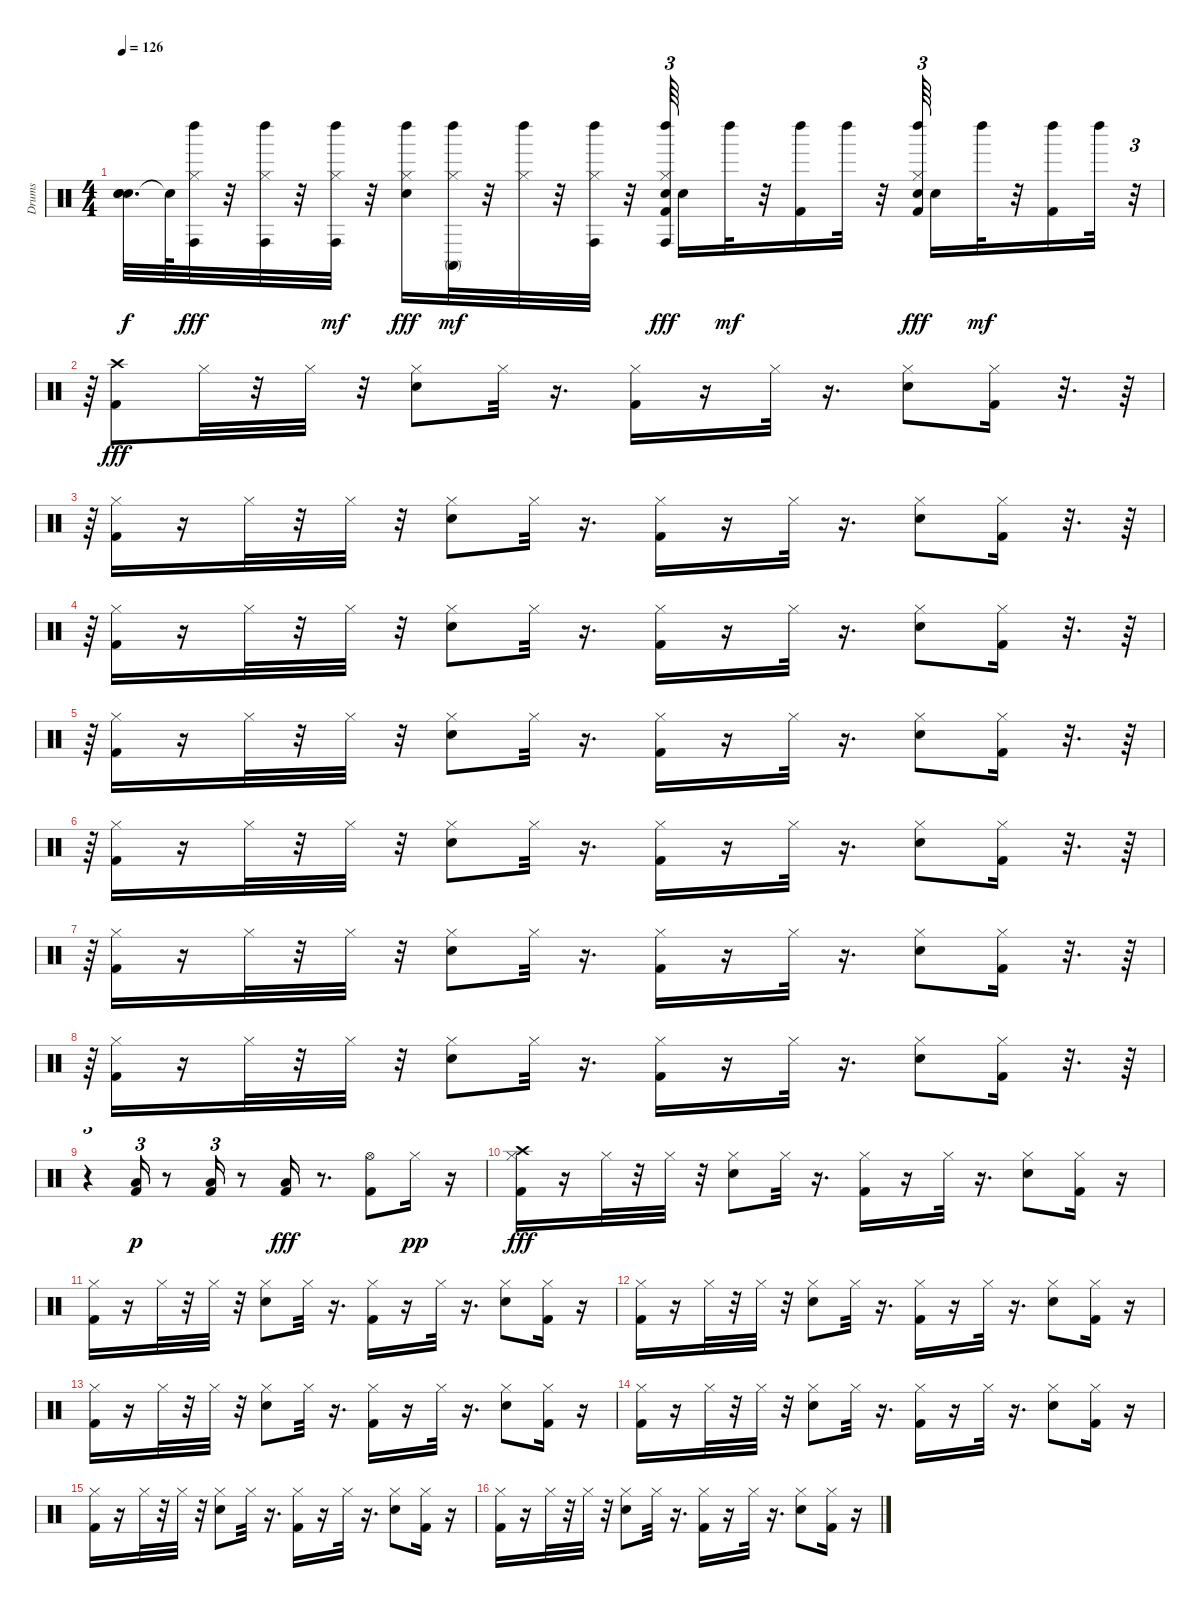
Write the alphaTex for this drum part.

\track ("Drums" "Drums") {instrument percussion}
\staff {score}
\articulation defaults
\ts (4 4)
\tempo 126
\clef neutral
\ks c
("Snare (hit)"{t} "Snare (hit)"{t} "Snare (hit)"{t}).32{d dy f} "Snare (hit)"{t}.64 ("Left Maraca (hit)" "Conga high (hit)" "Hi-Hat (closed)").32{dy fff} r.32 ("Conga high (hit)" "Left Maraca (hit)" "Hi-Hat (closed)").32 r.32 ("Hi-Hat (closed)" "Conga high (hit)" "Left Maraca (hit)").32{dy mf} r.32 ("Hi-Hat (closed)" "Left Maraca (hit)" "Snare (hit) 2").16{dy fff} ("Hi-Hat (closed)" "Conga high (mute)" "Left Maraca (hit)").32{dy mf} r.32 ("Hi-Hat (closed)" "Left Maraca (hit)").32 r.32 ("Conga high (hit)" "Hi-Hat (closed)" "Left Maraca (hit)").32 r.32 ("Kick (hit) 2" "Hi-Hat (closed)" "Left Maraca (hit)" "Snare (hit) 2" "Conga high (hit)").64{tu (3 2) dy fff} "Snare (hit) 2".16 "Left Maraca (hit)".32{dy mf} r.32 ("Left Maraca (hit)" "Kick (hit) 2").16 "Left Maraca (hit)".32 r.32 ("Left Maraca (hit)" "Snare (hit) 2" "Kick (hit) 2" "Hi-Hat (closed)").64{tu (3 2) dy fff} "Snare (hit) 2".16 "Left Maraca (hit)".32{dy mf} r.32 ("Left Maraca (hit)" "Kick (hit) 2").16 "Left Maraca (hit)".32 r.32{tu (3 2)} |
r.64{tu (3 2)} ("Crash high (hit)" "Kick (hit) 2").8{dy fff} "Hi-Hat (closed)".32 r.32 "Hi-Hat (closed)".32 r.32 ("Hi-Hat (closed)" "Snare (hit) 2").8 "Hi-Hat (closed)".32 r.16{d} ("Hi-Hat (closed)" "Kick (hit) 2").16 r.16 "Hi-Hat (closed)".32 r.16{d} ("Snare (hit) 2" "Hi-Hat (closed)").8 ("Hi-Hat (closed)" "Kick (hit) 2").16 r.32{d} r.64 |
r.64{tu (3 2)} ("Hi-Hat (closed)" "Kick (hit) 2").16 r.16 "Hi-Hat (closed)".32 r.32 "Hi-Hat (closed)".32 r.32 ("Hi-Hat (closed)" "Snare (hit) 2").8 "Hi-Hat (closed)".32 r.16{d} ("Hi-Hat (closed)" "Kick (hit) 2").16 r.16 "Hi-Hat (closed)".32 r.16{d} ("Snare (hit) 2" "Hi-Hat (closed)").8 ("Kick (hit) 2" "Hi-Hat (closed)").16 r.32{d} r.64 |
r.64{tu (3 2)} ("Hi-Hat (closed)" "Kick (hit) 2").16 r.16 "Hi-Hat (closed)".32 r.32 "Hi-Hat (closed)".32 r.32 ("Hi-Hat (closed)" "Snare (hit) 2").8 "Hi-Hat (closed)".32 r.16{d} ("Hi-Hat (closed)" "Kick (hit) 2").16 r.16 "Hi-Hat (closed)".32 r.16{d} ("Snare (hit) 2" "Hi-Hat (closed)").8 ("Hi-Hat (closed)" "Kick (hit) 2").16 r.32{d} r.64 |
r.64{tu (3 2)} ("Hi-Hat (closed)" "Kick (hit) 2").16 r.16 "Hi-Hat (closed)".32 r.32 "Hi-Hat (closed)".32 r.32 ("Snare (hit) 2" "Hi-Hat (closed)").8 "Hi-Hat (closed)".32 r.16{d} ("Hi-Hat (closed)" "Kick (hit) 2").16 r.16 "Hi-Hat (closed)".32 r.16{d} ("Snare (hit) 2" "Hi-Hat (closed)").8 ("Kick (hit) 2" "Hi-Hat (closed)").16 r.32{d} r.64 |
r.64{tu (3 2)} ("Hi-Hat (closed)" "Kick (hit) 2").16 r.16 "Hi-Hat (closed)".32 r.32 "Hi-Hat (closed)".32 r.32 ("Hi-Hat (closed)" "Snare (hit) 2").8 "Hi-Hat (closed)".32 r.16{d} ("Kick (hit) 2" "Hi-Hat (closed)").16 r.16 "Hi-Hat (closed)".32 r.16{d} ("Hi-Hat (closed)" "Snare (hit) 2").8 ("Hi-Hat (closed)" "Kick (hit) 2").16 r.32{d} r.64 |
r.64{tu (3 2)} ("Hi-Hat (closed)" "Kick (hit) 2").16 r.16 "Hi-Hat (closed)".32 r.32 "Hi-Hat (closed)".32 r.32 ("Snare (hit) 2" "Hi-Hat (closed)").8 "Hi-Hat (closed)".32 r.16{d} ("Hi-Hat (closed)" "Kick (hit) 2").16 r.16 "Hi-Hat (closed)".32 r.16{d} ("Snare (hit) 2" "Hi-Hat (closed)").8 ("Hi-Hat (closed)" "Kick (hit) 2").16 r.32{d} r.64 |
r.64{tu (3 2)} ("Kick (hit) 2" "Hi-Hat (closed)").16 r.16 "Hi-Hat (closed)".32 r.32 "Hi-Hat (closed)".32 r.32 ("Hi-Hat (closed)" "Snare (hit) 2").8 "Hi-Hat (closed)".32 r.16{d} ("Kick (hit) 2" "Hi-Hat (closed)").16 r.16 "Hi-Hat (closed)".32 r.16{d} ("Snare (hit) 2" "Hi-Hat (closed)").8 ("Hi-Hat (closed)" "Kick (hit) 2").16 r.32{d} r.64 |
r.4{tu (3 2)} ("Kick (hit) 2" "Low Floor Tom (hit)").16{tu (3 2) dy p} r.8 ("Kick (hit) 2" "Low Floor Tom (hit)").16{tu (3 2)} r.8 ("Low Floor Tom (hit)" "Kick (hit) 2").16{dy fff} r.8{d} ("Hi-Hat (open)" "Kick (hit) 2").8 "Hi-Hat (closed)".16{dy pp} r.16 |
("Hi-Hat (closed)" "Crash high (hit)" "Kick (hit) 2").16{dy fff} r.16 "Hi-Hat (closed)".32 r.32 "Hi-Hat (closed)".32 r.32 ("Snare (hit) 2" "Hi-Hat (closed)").8 "Hi-Hat (closed)".32 r.16{d} ("Kick (hit) 2" "Hi-Hat (closed)").16 r.16 "Hi-Hat (closed)".32 r.16{d} ("Snare (hit) 2" "Hi-Hat (closed)").8 ("Kick (hit) 2" "Hi-Hat (closed)").16 r.16 |
("Kick (hit) 2" "Hi-Hat (closed)").16 r.16 "Hi-Hat (closed)".32 r.32 "Hi-Hat (closed)".32 r.32 ("Snare (hit) 2" "Hi-Hat (closed)").8 "Hi-Hat (closed)".32 r.16{d} ("Hi-Hat (closed)" "Kick (hit) 2").16 r.16 "Hi-Hat (closed)".32 r.16{d} ("Hi-Hat (closed)" "Snare (hit) 2").8 ("Hi-Hat (closed)" "Kick (hit) 2").16 r.16 |
("Hi-Hat (closed)" "Kick (hit) 2").16 r.16 "Hi-Hat (closed)".32 r.32 "Hi-Hat (closed)".32 r.32 ("Hi-Hat (closed)" "Snare (hit) 2").8 "Hi-Hat (closed)".32 r.16{d} ("Hi-Hat (closed)" "Kick (hit) 2").16 r.16 "Hi-Hat (closed)".32 r.16{d} ("Hi-Hat (closed)" "Snare (hit) 2").8 ("Kick (hit) 2" "Hi-Hat (closed)").16 r.16 |
("Kick (hit) 2" "Hi-Hat (closed)").16 r.16 "Hi-Hat (closed)".32 r.32 "Hi-Hat (closed)".32 r.32 ("Snare (hit) 2" "Hi-Hat (closed)").8 "Hi-Hat (closed)".32 r.16{d} ("Kick (hit) 2" "Hi-Hat (closed)").16 r.16 "Hi-Hat (closed)".32 r.16{d} ("Hi-Hat (closed)" "Snare (hit) 2").8 ("Hi-Hat (closed)" "Kick (hit) 2").16 r.16 |
("Kick (hit) 2" "Hi-Hat (closed)").16 r.16 "Hi-Hat (closed)".32 r.32 "Hi-Hat (closed)".32 r.32 ("Hi-Hat (closed)" "Snare (hit) 2").8 "Hi-Hat (closed)".32 r.16{d} ("Kick (hit) 2" "Hi-Hat (closed)").16 r.16 "Hi-Hat (closed)".32 r.16{d} ("Hi-Hat (closed)" "Snare (hit) 2").8 ("Hi-Hat (closed)" "Kick (hit) 2").16 r.16 |
("Kick (hit) 2" "Hi-Hat (closed)").16 r.16 "Hi-Hat (closed)".32 r.32 "Hi-Hat (closed)".32 r.32 ("Snare (hit) 2" "Hi-Hat (closed)").8 "Hi-Hat (closed)".32 r.16{d} ("Hi-Hat (closed)" "Kick (hit) 2").16 r.16 "Hi-Hat (closed)".32 r.16{d} ("Hi-Hat (closed)" "Snare (hit) 2").8 ("Kick (hit) 2" "Hi-Hat (closed)").16 r.16 |
("Kick (hit) 2" "Hi-Hat (closed)").16 r.16 "Hi-Hat (closed)".32 r.32 "Hi-Hat (closed)".32 r.32 ("Snare (hit) 2" "Hi-Hat (closed)").8 "Hi-Hat (closed)".32 r.16{d} ("Kick (hit) 2" "Hi-Hat (closed)").16 r.16 "Hi-Hat (closed)".32 r.16{d} ("Hi-Hat (closed)" "Snare (hit) 2").8 ("Hi-Hat (closed)" "Kick (hit) 2").16 r.16
